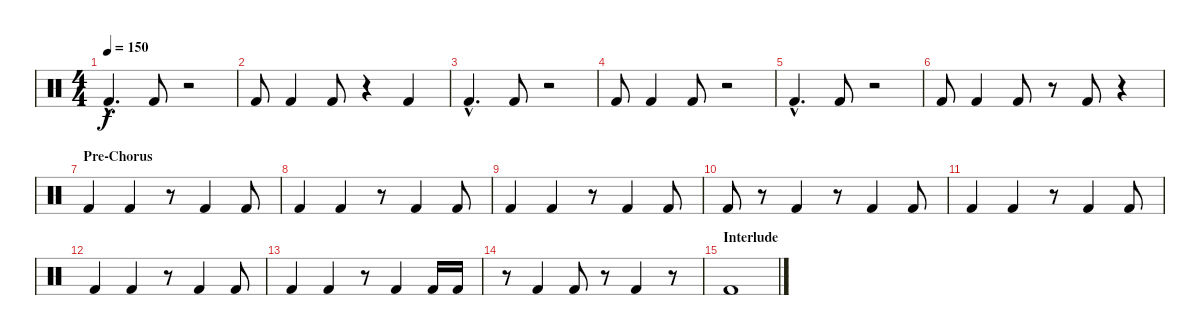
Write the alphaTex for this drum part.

\track "" {instrument percussion}
\staff {score}
\articulation defaults
\ts (4 4)
\tempo 150
\clef neutral
\ks c "Kick (hit) 2"{hac}.4{d dy f} "Kick (hit) 2".8
r.2 |
"Kick (hit) 2".8 "Kick (hit) 2".4 "Kick (hit) 2".8 r.4 "Kick (hit) 2".4 |
"Kick (hit) 2"{hac}.4{d} "Kick (hit) 2".8 r.2 |
"Kick (hit) 2".8 "Kick (hit) 2".4 "Kick (hit) 2".8 r.2 |
"Kick (hit) 2"{hac}.4{d} "Kick (hit) 2".8 r.2 |
"Kick (hit) 2".8 "Kick (hit) 2".4 "Kick (hit) 2".8 r.8 "Kick (hit) 2".8 r.4 |
\section ("" "Pre-Chorus")
"Kick (hit) 2".4 "Kick (hit) 2".4 r.8 "Kick (hit) 2".4 "Kick (hit) 2".8 |
"Kick (hit) 2".4 "Kick (hit) 2".4 r.8 "Kick (hit) 2".4 "Kick (hit) 2".8 |
"Kick (hit) 2".4 "Kick (hit) 2".4 r.8 "Kick (hit) 2".4 "Kick (hit) 2".8 |
"Kick (hit) 2".8 r.8 "Kick (hit) 2".4 r.8 "Kick (hit) 2".4 "Kick (hit) 2".8 |
"Kick (hit) 2".4 "Kick (hit) 2".4 r.8 "Kick (hit) 2".4 "Kick (hit) 2".8 |
"Kick (hit) 2".4 "Kick (hit) 2".4 r.8 "Kick (hit) 2".4 "Kick (hit) 2".8 |
"Kick (hit) 2".4 "Kick (hit) 2".4 r.8 "Kick (hit) 2".4 "Kick (hit) 2".16 "Kick (hit) 2".16 |
r.8 "Kick (hit) 2".4 "Kick (hit) 2".8 r.8 "Kick (hit) 2".4 r.8 |
\section ("" "Interlude")
"Kick (hit) 2".1
